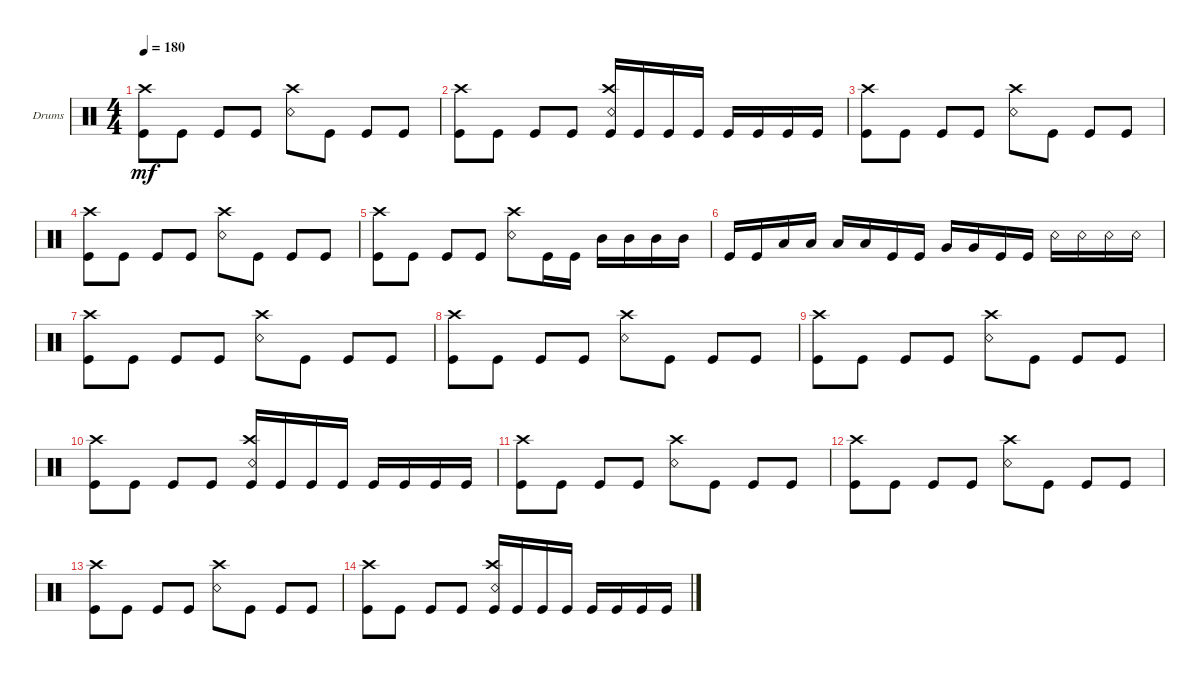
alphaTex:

\defaultSystemsLayout 4
\bracketExtendMode groupsimilarinstruments
\firstSystemTrackNameOrientation horizontal
\otherSystemsTrackNameOrientation horizontal
\track ("Drumkit" "Drums") {instrument percussion}
\staff {score}
\articulation defaults
\ts (4 4)
\tempo 180
\clef neutral
\ks c
("Kick (hit)" "Crash high (hit)").8{dy mf} "Kick (hit)".8 "Kick (hit)".8 "Kick (hit)".8 ("Crash high (hit)" "Snare (rim shot)").8 "Kick (hit)".8 "Kick (hit)".8 "Kick (hit)".8 |
("Kick (hit)" "Crash high (hit)").8 "Kick (hit)".8 "Kick (hit)".8 "Kick (hit)".8 ("Kick (hit)" "Snare (rim shot)" "Crash high (hit)").16 "Kick (hit)".16 "Kick (hit)".16 "Kick (hit)".16 "Kick (hit)".16 "Kick (hit)".16 "Kick (hit)".16 "Kick (hit)".16 |
("Kick (hit)" "Crash high (hit)").8 "Kick (hit)".8 "Kick (hit)".8 "Kick (hit)".8 ("Crash high (hit)" "Snare (rim shot)").8 "Kick (hit)".8 "Kick (hit)".8 "Kick (hit)".8 |
("Kick (hit)" "Crash high (hit)").8 "Kick (hit)".8 "Kick (hit)".8 "Kick (hit)".8 ("Crash high (hit)" "Snare (rim shot)").8 "Kick (hit)".8 "Kick (hit)".8 "Kick (hit)".8 |
("Kick (hit)" "Crash high (hit)").8 "Kick (hit)".8 "Kick (hit)".8 "Kick (hit)".8 ("Crash high (hit)" "Snare (rim shot)").8 "Kick (hit)".16 "Kick (hit)".16 "Mid Tom (hit)".16 "Mid Tom (hit)".16 "Mid Tom (hit)".16 "Mid Tom (hit)".16 |
"Kick (hit)".16 "Kick (hit)".16 "Low Tom (hit)".16 "Low Tom (hit)".16 "Low Tom (hit)".16 "Low Tom (hit)".16 "Kick (hit)".16 "Kick (hit)".16 "Very Low Tom (hit)".16 "Very Low Tom (hit)".16 "Kick (hit)".16 "Kick (hit)".16 "Snare (rim shot)".16 "Snare (rim shot)".16 "Snare (rim shot)".16 "Snare (rim shot)".16 |
("Kick (hit)" "Crash high (hit)").8 "Kick (hit)".8 "Kick (hit)".8 "Kick (hit)".8 ("Crash high (hit)" "Snare (rim shot)").8 "Kick (hit)".8 "Kick (hit)".8 "Kick (hit)".8 |
("Kick (hit)" "Crash high (hit)").8 "Kick (hit)".8 "Kick (hit)".8 "Kick (hit)".8 ("Crash high (hit)" "Snare (rim shot)").8 "Kick (hit)".8 "Kick (hit)".8 "Kick (hit)".8 |
("Kick (hit)" "Crash high (hit)").8 "Kick (hit)".8 "Kick (hit)".8 "Kick (hit)".8 ("Crash high (hit)" "Snare (rim shot)").8 "Kick (hit)".8 "Kick (hit)".8 "Kick (hit)".8 |
("Kick (hit)" "Crash high (hit)").8 "Kick (hit)".8 "Kick (hit)".8 "Kick (hit)".8 ("Kick (hit)" "Snare (rim shot)" "Crash high (hit)").16 "Kick (hit)".16 "Kick (hit)".16 "Kick (hit)".16 "Kick (hit)".16 "Kick (hit)".16 "Kick (hit)".16 "Kick (hit)".16 |
("Kick (hit)" "Crash high (hit)").8 "Kick (hit)".8 "Kick (hit)".8 "Kick (hit)".8 ("Crash high (hit)" "Snare (rim shot)").8 "Kick (hit)".8 "Kick (hit)".8 "Kick (hit)".8 |
("Kick (hit)" "Crash high (hit)").8 "Kick (hit)".8 "Kick (hit)".8 "Kick (hit)".8 ("Crash high (hit)" "Snare (rim shot)").8 "Kick (hit)".8 "Kick (hit)".8 "Kick (hit)".8 |
("Kick (hit)" "Crash high (hit)").8 "Kick (hit)".8 "Kick (hit)".8 "Kick (hit)".8 ("Crash high (hit)" "Snare (rim shot)").8 "Kick (hit)".8 "Kick (hit)".8 "Kick (hit)".8 |
("Kick (hit)" "Crash high (hit)").8 "Kick (hit)".8 "Kick (hit)".8 "Kick (hit)".8 ("Kick (hit)" "Snare (rim shot)" "Crash high (hit)").16 "Kick (hit)".16 "Kick (hit)".16 "Kick (hit)".16 "Kick (hit)".16 "Kick (hit)".16 "Kick (hit)".16 "Kick (hit)".16
